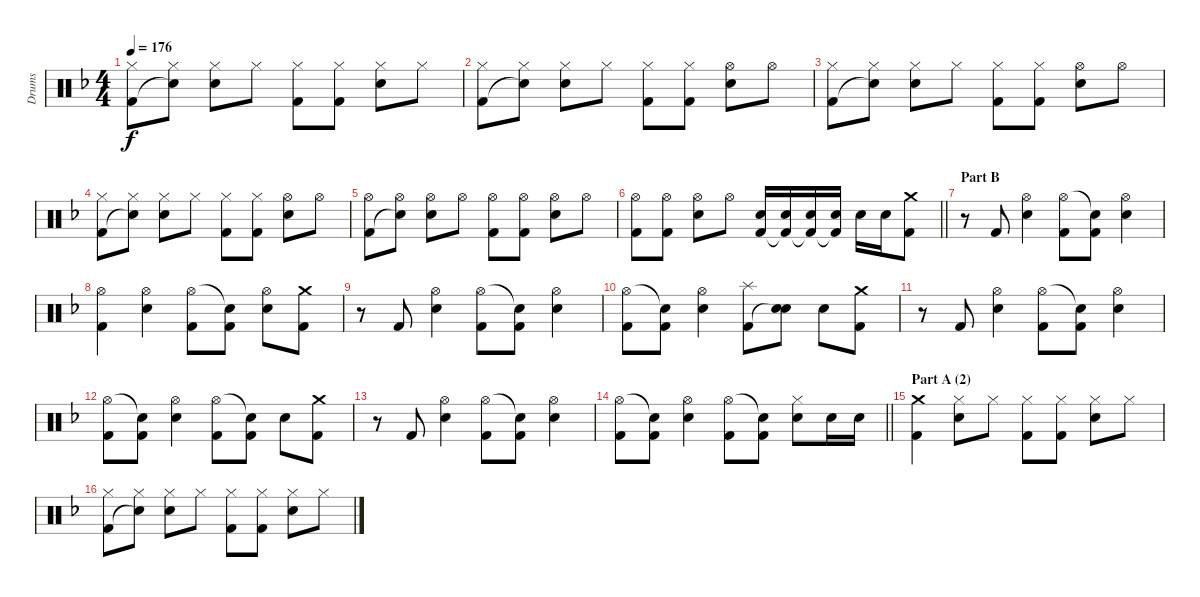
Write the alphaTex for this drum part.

\track ("Drums" "Drums") {instrument percussion}
\staff {score}
\articulation defaults
\ts (4 4)
\tempo 176
\clef neutral
\ks f
("Hi-Hat (closed)" "Kick (hit) 2").8{dy f} ("Hi-Hat (closed)" "Snare (hit)"{t}).8 ("Hi-Hat (closed)" "Electric Snare (hit)").8 "Hi-Hat (closed)".8 ("Hi-Hat (closed)" "Kick (hit) 2").8 ("Hi-Hat (closed)" "Kick (hit) 2").8 ("Hi-Hat (closed)" "Electric Snare (hit)").8 "Hi-Hat (closed)".8 |
("Hi-Hat (closed)" "Kick (hit) 2").8 ("Hi-Hat (closed)" "Snare (hit)"{t}).8 ("Hi-Hat (closed)" "Electric Snare (hit)").8 "Hi-Hat (closed)".8 ("Hi-Hat (closed)" "Kick (hit) 2").8 ("Hi-Hat (closed)" "Kick (hit) 2").8 ("Hi-Hat (open)" "Electric Snare (hit)").8 "Hi-Hat (open)".8 |
("Hi-Hat (closed)" "Kick (hit) 2").8 ("Hi-Hat (closed)" "Snare (hit)"{t}).8 ("Hi-Hat (closed)" "Electric Snare (hit)").8 "Hi-Hat (closed)".8 ("Hi-Hat (closed)" "Kick (hit) 2").8 ("Hi-Hat (closed)" "Kick (hit) 2").8 ("Hi-Hat (open)" "Electric Snare (hit)").8 "Hi-Hat (open)".8 |
("Hi-Hat (closed)" "Kick (hit) 2").8 ("Hi-Hat (closed)" "Snare (hit)"{t}).8 ("Hi-Hat (closed)" "Electric Snare (hit)").8 "Hi-Hat (closed)".8 ("Hi-Hat (closed)" "Kick (hit) 2").8 ("Hi-Hat (closed)" "Kick (hit) 2").8 ("Hi-Hat (open)" "Electric Snare (hit)").8 "Hi-Hat (open)".8 |
("Hi-Hat (open)" "Kick (hit) 2").8 ("Hi-Hat (open)" "Snare (hit)"{t}).8 ("Hi-Hat (open)" "Electric Snare (hit)").8 "Hi-Hat (open)".8 ("Hi-Hat (open)" "Kick (hit) 2").8 ("Hi-Hat (open)" "Kick (hit) 2").8 ("Hi-Hat (open)" "Electric Snare (hit)").8 "Hi-Hat (open)".8 |
\barLineRight lightlight
("Hi-Hat (open)" "Kick (hit) 2").8 ("Hi-Hat (open)" "Kick (hit) 2").8 ("Hi-Hat (open)" "Electric Snare (hit)").8 "Hi-Hat (open)".8 ("Electric Snare (hit)" "Kick (hit) 2").16 ("Electric Snare (hit)" "Kick (hit) 2"{t}).16 ("Electric Snare (hit)" "Kick (hit) 2"{t}).16 ("Electric Snare (hit)" "Kick (hit) 2"{t}).16 "Electric Snare (hit)".16 "Electric Snare (hit)".16 ("Crash medium (hit)" "Kick (hit) 2").8 |
\section ("" "Part B")
r.8 "Kick (hit) 2".8 ("Hi-Hat (open)" "Electric Snare (hit)").4 ("Hi-Hat (open)" "Kick (hit) 2").8 ("Snare (hit)"{t} "Kick (hit) 2").8 ("Hi-Hat (open)" "Electric Snare (hit)").4 |
("Hi-Hat (open)" "Kick (hit) 2").4 ("Hi-Hat (open)" "Electric Snare (hit)").4 ("Hi-Hat (open)" "Kick (hit) 2").8 ("Snare (hit)"{t} "Kick (hit) 2").8 ("Hi-Hat (open)" "Electric Snare (hit)").8 ("Crash medium (hit)" "Kick (hit) 2").8 |
r.8 "Kick (hit) 2".8 ("Hi-Hat (open)" "Electric Snare (hit)").4 ("Hi-Hat (open)" "Kick (hit) 2").8 ("Snare (hit)"{t} "Kick (hit) 2").8 ("Hi-Hat (open)" "Electric Snare (hit)").4 |
("Hi-Hat (open)" "Kick (hit) 2").8 ("Snare (hit)"{t} "Kick (hit) 2").8 ("Hi-Hat (open)" "Electric Snare (hit)").4 ("Splash (hit)" "Kick (hit) 2").8 ("Electric Snare (hit)" "Snare (hit)"{t}).8 "Electric Snare (hit)".8 ("Crash medium (hit)" "Kick (hit) 2").8 |
r.8 "Kick (hit) 2".8 ("Hi-Hat (open)" "Electric Snare (hit)").4 ("Hi-Hat (open)" "Kick (hit) 2").8 ("Snare (hit)"{t} "Kick (hit) 2").8 ("Hi-Hat (open)" "Electric Snare (hit)").4 |
("Hi-Hat (open)" "Kick (hit) 2").8 ("Snare (hit)"{t} "Kick (hit) 2").8 ("Hi-Hat (open)" "Electric Snare (hit)").4 ("Hi-Hat (open)" "Kick (hit) 2").8 ("Snare (hit)"{t} "Kick (hit) 2").8 "Electric Snare (hit)".8 ("Crash medium (hit)" "Kick (hit) 2").8 |
r.8 "Kick (hit) 2".8 ("Hi-Hat (open)" "Electric Snare (hit)").4 ("Hi-Hat (open)" "Kick (hit) 2").8 ("Snare (hit)"{t} "Kick (hit) 2").8 ("Hi-Hat (open)" "Electric Snare (hit)").4 |
\barLineRight lightlight
("Hi-Hat (open)" "Kick (hit) 2").8 ("Snare (hit)"{t} "Kick (hit) 2").8 ("Hi-Hat (open)" "Electric Snare (hit)").4 ("Hi-Hat (open)" "Kick (hit) 2").8 ("Snare (hit)"{t} "Kick (hit) 2").8 ("Hi-Hat (closed)" "Electric Snare (hit)").8 "Electric Snare (hit)".16 "Electric Snare (hit)".16 |
\section ("" "Part A (2)")
("Crash medium (hit)" "Kick (hit) 2").4 ("Hi-Hat (closed)" "Electric Snare (hit)").8 "Hi-Hat (closed)".8 ("Hi-Hat (closed)" "Kick (hit) 2").8 ("Hi-Hat (closed)" "Kick (hit) 2").8 ("Hi-Hat (closed)" "Electric Snare (hit)").8 "Hi-Hat (closed)".8 |
("Hi-Hat (closed)" "Kick (hit) 2").8 ("Hi-Hat (closed)" "Snare (hit)"{t}).8 ("Hi-Hat (closed)" "Electric Snare (hit)").8 "Hi-Hat (closed)".8 ("Hi-Hat (closed)" "Kick (hit) 2").8 ("Hi-Hat (closed)" "Kick (hit) 2").8 ("Hi-Hat (closed)" "Electric Snare (hit)").8 "Hi-Hat (closed)".8
